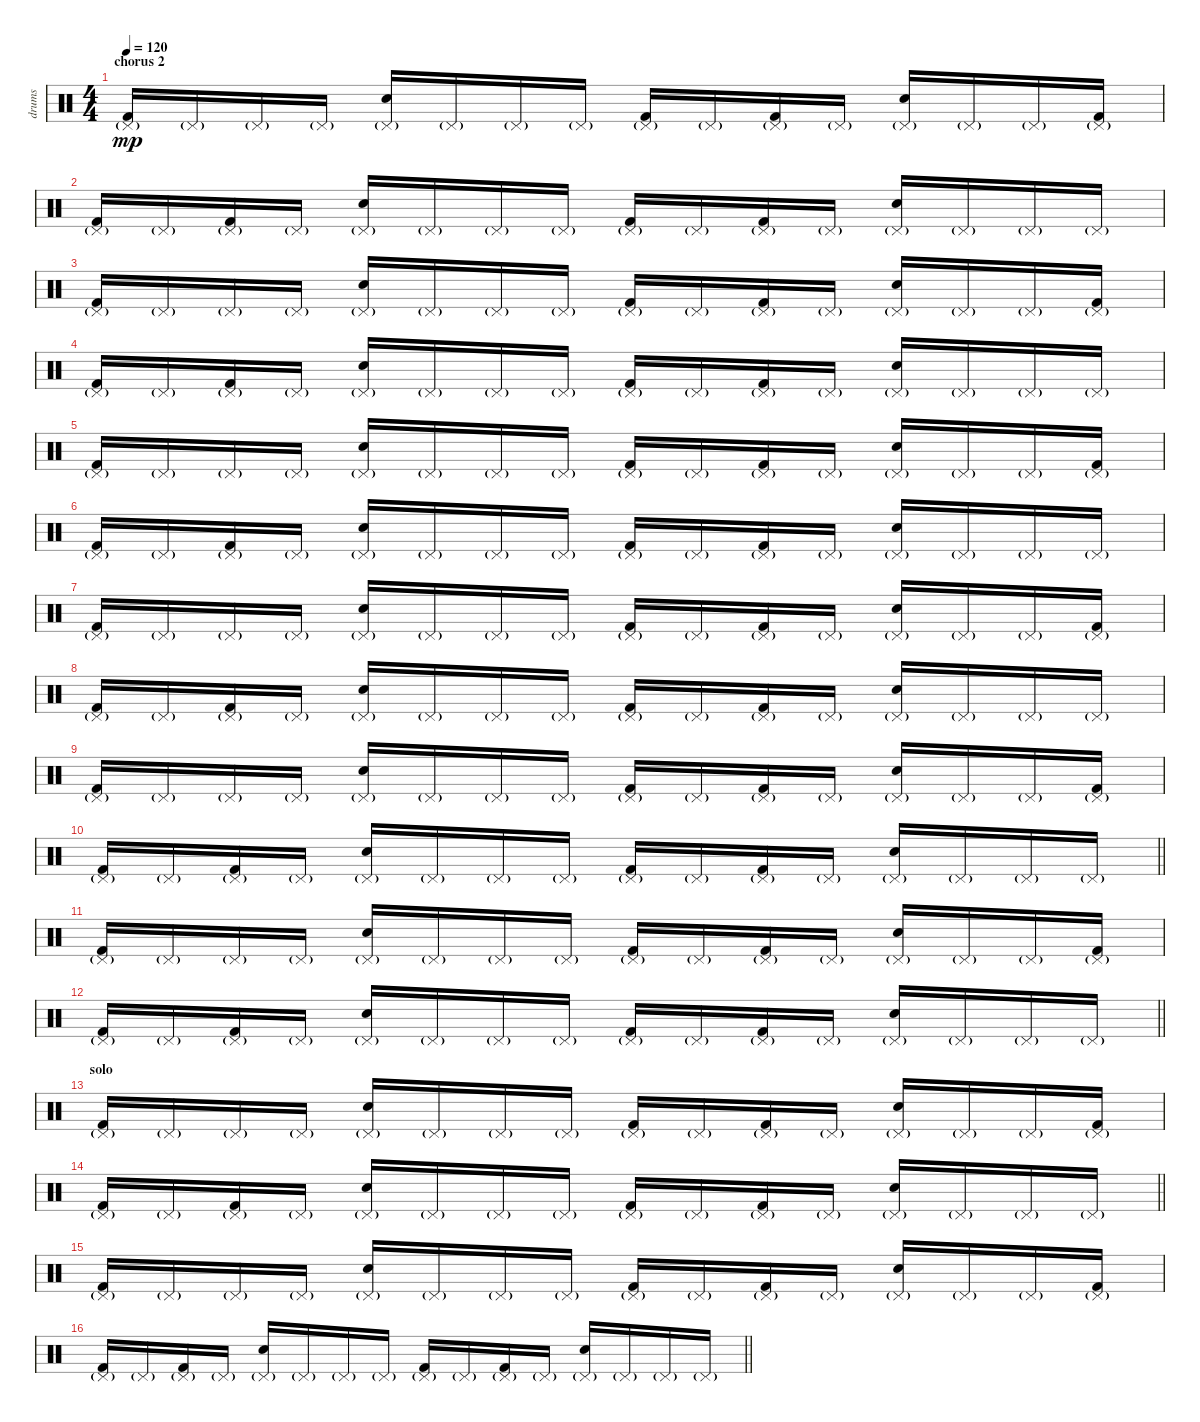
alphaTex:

\track ("drums" "drums") {instrument percussion}
\staff {score}
\articulation defaults
\ts (4 4)
\section ("" "chorus 2")
\tempo 120
\clef neutral
\ks c
("Kick (hit) 2" "Pedal Hi-Hat (hit)"{g}).16{dy mp} "Pedal Hi-Hat (hit)"{g}.16 "Pedal Hi-Hat (hit)"{g}.16 "Pedal Hi-Hat (hit)"{g}.16 ("Electric Snare (hit)" "Pedal Hi-Hat (hit)"{g}).16 "Pedal Hi-Hat (hit)"{g}.16 "Pedal Hi-Hat (hit)"{g}.16 "Pedal Hi-Hat (hit)"{g}.16 ("Kick (hit) 2" "Pedal Hi-Hat (hit)"{g}).16 "Pedal Hi-Hat (hit)"{g}.16 ("Kick (hit) 2" "Pedal Hi-Hat (hit)"{g}).16 "Pedal Hi-Hat (hit)"{g}.16 ("Electric Snare (hit)" "Pedal Hi-Hat (hit)"{g}).16 "Pedal Hi-Hat (hit)"{g}.16 "Pedal Hi-Hat (hit)"{g}.16 ("Kick (hit) 2" "Pedal Hi-Hat (hit)"{g}).16 |
("Kick (hit) 2" "Pedal Hi-Hat (hit)"{g}).16 "Pedal Hi-Hat (hit)"{g}.16 ("Kick (hit) 2" "Pedal Hi-Hat (hit)"{g}).16 "Pedal Hi-Hat (hit)"{g}.16 ("Electric Snare (hit)" "Pedal Hi-Hat (hit)"{g}).16 "Pedal Hi-Hat (hit)"{g}.16 "Pedal Hi-Hat (hit)"{g}.16 "Pedal Hi-Hat (hit)"{g}.16 ("Kick (hit) 2" "Pedal Hi-Hat (hit)"{g}).16 "Pedal Hi-Hat (hit)"{g}.16 ("Kick (hit) 2" "Pedal Hi-Hat (hit)"{g}).16 "Pedal Hi-Hat (hit)"{g}.16 ("Electric Snare (hit)" "Pedal Hi-Hat (hit)"{g}).16 "Pedal Hi-Hat (hit)"{g}.16 "Pedal Hi-Hat (hit)"{g}.16 "Pedal Hi-Hat (hit)"{g}.16 |
("Kick (hit) 2" "Pedal Hi-Hat (hit)"{g}).16 "Pedal Hi-Hat (hit)"{g}.16 "Pedal Hi-Hat (hit)"{g}.16 "Pedal Hi-Hat (hit)"{g}.16 ("Electric Snare (hit)" "Pedal Hi-Hat (hit)"{g}).16 "Pedal Hi-Hat (hit)"{g}.16 "Pedal Hi-Hat (hit)"{g}.16 "Pedal Hi-Hat (hit)"{g}.16 ("Kick (hit) 2" "Pedal Hi-Hat (hit)"{g}).16 "Pedal Hi-Hat (hit)"{g}.16 ("Kick (hit) 2" "Pedal Hi-Hat (hit)"{g}).16 "Pedal Hi-Hat (hit)"{g}.16 ("Electric Snare (hit)" "Pedal Hi-Hat (hit)"{g}).16 "Pedal Hi-Hat (hit)"{g}.16 "Pedal Hi-Hat (hit)"{g}.16 ("Kick (hit) 2" "Pedal Hi-Hat (hit)"{g}).16 |
("Kick (hit) 2" "Pedal Hi-Hat (hit)"{g}).16 "Pedal Hi-Hat (hit)"{g}.16 ("Kick (hit) 2" "Pedal Hi-Hat (hit)"{g}).16 "Pedal Hi-Hat (hit)"{g}.16 ("Electric Snare (hit)" "Pedal Hi-Hat (hit)"{g}).16 "Pedal Hi-Hat (hit)"{g}.16 "Pedal Hi-Hat (hit)"{g}.16 "Pedal Hi-Hat (hit)"{g}.16 ("Kick (hit) 2" "Pedal Hi-Hat (hit)"{g}).16 "Pedal Hi-Hat (hit)"{g}.16 ("Kick (hit) 2" "Pedal Hi-Hat (hit)"{g}).16 "Pedal Hi-Hat (hit)"{g}.16 ("Electric Snare (hit)" "Pedal Hi-Hat (hit)"{g}).16 "Pedal Hi-Hat (hit)"{g}.16 "Pedal Hi-Hat (hit)"{g}.16 "Pedal Hi-Hat (hit)"{g}.16 |
("Kick (hit) 2" "Pedal Hi-Hat (hit)"{g}).16 "Pedal Hi-Hat (hit)"{g}.16 "Pedal Hi-Hat (hit)"{g}.16 "Pedal Hi-Hat (hit)"{g}.16 ("Electric Snare (hit)" "Pedal Hi-Hat (hit)"{g}).16 "Pedal Hi-Hat (hit)"{g}.16 "Pedal Hi-Hat (hit)"{g}.16 "Pedal Hi-Hat (hit)"{g}.16 ("Kick (hit) 2" "Pedal Hi-Hat (hit)"{g}).16 "Pedal Hi-Hat (hit)"{g}.16 ("Kick (hit) 2" "Pedal Hi-Hat (hit)"{g}).16 "Pedal Hi-Hat (hit)"{g}.16 ("Electric Snare (hit)" "Pedal Hi-Hat (hit)"{g}).16 "Pedal Hi-Hat (hit)"{g}.16 "Pedal Hi-Hat (hit)"{g}.16 ("Kick (hit) 2" "Pedal Hi-Hat (hit)"{g}).16 |
("Kick (hit) 2" "Pedal Hi-Hat (hit)"{g}).16 "Pedal Hi-Hat (hit)"{g}.16 ("Kick (hit) 2" "Pedal Hi-Hat (hit)"{g}).16 "Pedal Hi-Hat (hit)"{g}.16 ("Electric Snare (hit)" "Pedal Hi-Hat (hit)"{g}).16 "Pedal Hi-Hat (hit)"{g}.16 "Pedal Hi-Hat (hit)"{g}.16 "Pedal Hi-Hat (hit)"{g}.16 ("Kick (hit) 2" "Pedal Hi-Hat (hit)"{g}).16 "Pedal Hi-Hat (hit)"{g}.16 ("Kick (hit) 2" "Pedal Hi-Hat (hit)"{g}).16 "Pedal Hi-Hat (hit)"{g}.16 ("Electric Snare (hit)" "Pedal Hi-Hat (hit)"{g}).16 "Pedal Hi-Hat (hit)"{g}.16 "Pedal Hi-Hat (hit)"{g}.16 "Pedal Hi-Hat (hit)"{g}.16 |
("Kick (hit) 2" "Pedal Hi-Hat (hit)"{g}).16 "Pedal Hi-Hat (hit)"{g}.16 "Pedal Hi-Hat (hit)"{g}.16 "Pedal Hi-Hat (hit)"{g}.16 ("Electric Snare (hit)" "Pedal Hi-Hat (hit)"{g}).16 "Pedal Hi-Hat (hit)"{g}.16 "Pedal Hi-Hat (hit)"{g}.16 "Pedal Hi-Hat (hit)"{g}.16 ("Kick (hit) 2" "Pedal Hi-Hat (hit)"{g}).16 "Pedal Hi-Hat (hit)"{g}.16 ("Kick (hit) 2" "Pedal Hi-Hat (hit)"{g}).16 "Pedal Hi-Hat (hit)"{g}.16 ("Electric Snare (hit)" "Pedal Hi-Hat (hit)"{g}).16 "Pedal Hi-Hat (hit)"{g}.16 "Pedal Hi-Hat (hit)"{g}.16 ("Kick (hit) 2" "Pedal Hi-Hat (hit)"{g}).16 |
("Kick (hit) 2" "Pedal Hi-Hat (hit)"{g}).16 "Pedal Hi-Hat (hit)"{g}.16 ("Kick (hit) 2" "Pedal Hi-Hat (hit)"{g}).16 "Pedal Hi-Hat (hit)"{g}.16 ("Electric Snare (hit)" "Pedal Hi-Hat (hit)"{g}).16 "Pedal Hi-Hat (hit)"{g}.16 "Pedal Hi-Hat (hit)"{g}.16 "Pedal Hi-Hat (hit)"{g}.16 ("Kick (hit) 2" "Pedal Hi-Hat (hit)"{g}).16 "Pedal Hi-Hat (hit)"{g}.16 ("Kick (hit) 2" "Pedal Hi-Hat (hit)"{g}).16 "Pedal Hi-Hat (hit)"{g}.16 ("Electric Snare (hit)" "Pedal Hi-Hat (hit)"{g}).16 "Pedal Hi-Hat (hit)"{g}.16 "Pedal Hi-Hat (hit)"{g}.16 "Pedal Hi-Hat (hit)"{g}.16 |
("Kick (hit) 2" "Pedal Hi-Hat (hit)"{g}).16 "Pedal Hi-Hat (hit)"{g}.16 "Pedal Hi-Hat (hit)"{g}.16 "Pedal Hi-Hat (hit)"{g}.16 ("Hand Clap (hit)" "Pedal Hi-Hat (hit)"{g}).16 "Pedal Hi-Hat (hit)"{g}.16 "Pedal Hi-Hat (hit)"{g}.16 "Pedal Hi-Hat (hit)"{g}.16 ("Kick (hit) 2" "Pedal Hi-Hat (hit)"{g}).16 "Pedal Hi-Hat (hit)"{g}.16 ("Kick (hit) 2" "Pedal Hi-Hat (hit)"{g}).16 "Pedal Hi-Hat (hit)"{g}.16 ("Hand Clap (hit)" "Pedal Hi-Hat (hit)"{g}).16 "Pedal Hi-Hat (hit)"{g}.16 "Pedal Hi-Hat (hit)"{g}.16 ("Kick (hit) 2" "Pedal Hi-Hat (hit)"{g}).16 |
\barLineRight lightlight
("Kick (hit) 2" "Pedal Hi-Hat (hit)"{g}).16 "Pedal Hi-Hat (hit)"{g}.16 ("Kick (hit) 2" "Pedal Hi-Hat (hit)"{g}).16 "Pedal Hi-Hat (hit)"{g}.16 ("Hand Clap (hit)" "Pedal Hi-Hat (hit)"{g}).16 "Pedal Hi-Hat (hit)"{g}.16 "Pedal Hi-Hat (hit)"{g}.16 "Pedal Hi-Hat (hit)"{g}.16 ("Kick (hit) 2" "Pedal Hi-Hat (hit)"{g}).16 "Pedal Hi-Hat (hit)"{g}.16 ("Kick (hit) 2" "Pedal Hi-Hat (hit)"{g}).16 "Pedal Hi-Hat (hit)"{g}.16 ("Hand Clap (hit)" "Pedal Hi-Hat (hit)"{g}).16 "Pedal Hi-Hat (hit)"{g}.16 "Pedal Hi-Hat (hit)"{g}.16 "Pedal Hi-Hat (hit)"{g}.16 |
("Kick (hit) 2" "Pedal Hi-Hat (hit)"{g}).16 "Pedal Hi-Hat (hit)"{g}.16 "Pedal Hi-Hat (hit)"{g}.16 "Pedal Hi-Hat (hit)"{g}.16 ("Hand Clap (hit)" "Pedal Hi-Hat (hit)"{g}).16 "Pedal Hi-Hat (hit)"{g}.16 "Pedal Hi-Hat (hit)"{g}.16 "Pedal Hi-Hat (hit)"{g}.16 ("Kick (hit) 2" "Pedal Hi-Hat (hit)"{g}).16 "Pedal Hi-Hat (hit)"{g}.16 ("Kick (hit) 2" "Pedal Hi-Hat (hit)"{g}).16 "Pedal Hi-Hat (hit)"{g}.16 ("Hand Clap (hit)" "Pedal Hi-Hat (hit)"{g}).16 "Pedal Hi-Hat (hit)"{g}.16 "Pedal Hi-Hat (hit)"{g}.16 ("Kick (hit) 2" "Pedal Hi-Hat (hit)"{g}).16 |
\barLineRight lightlight
("Kick (hit) 2" "Pedal Hi-Hat (hit)"{g}).16 "Pedal Hi-Hat (hit)"{g}.16 ("Kick (hit) 2" "Pedal Hi-Hat (hit)"{g}).16 "Pedal Hi-Hat (hit)"{g}.16 ("Hand Clap (hit)" "Pedal Hi-Hat (hit)"{g}).16 "Pedal Hi-Hat (hit)"{g}.16 "Pedal Hi-Hat (hit)"{g}.16 "Pedal Hi-Hat (hit)"{g}.16 ("Kick (hit) 2" "Pedal Hi-Hat (hit)"{g}).16 "Pedal Hi-Hat (hit)"{g}.16 ("Kick (hit) 2" "Pedal Hi-Hat (hit)"{g}).16 "Pedal Hi-Hat (hit)"{g}.16 ("Hand Clap (hit)" "Pedal Hi-Hat (hit)"{g}).16 "Pedal Hi-Hat (hit)"{g}.16 "Pedal Hi-Hat (hit)"{g}.16 "Pedal Hi-Hat (hit)"{g}.16 |
\section ("" "solo")
("Kick (hit) 2" "Pedal Hi-Hat (hit)"{g}).16 "Pedal Hi-Hat (hit)"{g}.16 "Pedal Hi-Hat (hit)"{g}.16 "Pedal Hi-Hat (hit)"{g}.16 ("Hand Clap (hit)" "Pedal Hi-Hat (hit)"{g}).16 "Pedal Hi-Hat (hit)"{g}.16 "Pedal Hi-Hat (hit)"{g}.16 "Pedal Hi-Hat (hit)"{g}.16 ("Kick (hit) 2" "Pedal Hi-Hat (hit)"{g}).16 "Pedal Hi-Hat (hit)"{g}.16 ("Kick (hit) 2" "Pedal Hi-Hat (hit)"{g}).16 "Pedal Hi-Hat (hit)"{g}.16 ("Hand Clap (hit)" "Pedal Hi-Hat (hit)"{g}).16 "Pedal Hi-Hat (hit)"{g}.16 "Pedal Hi-Hat (hit)"{g}.16 ("Kick (hit) 2" "Pedal Hi-Hat (hit)"{g}).16 |
\barLineRight lightlight
("Kick (hit) 2" "Pedal Hi-Hat (hit)"{g}).16 "Pedal Hi-Hat (hit)"{g}.16 ("Kick (hit) 2" "Pedal Hi-Hat (hit)"{g}).16 "Pedal Hi-Hat (hit)"{g}.16 ("Hand Clap (hit)" "Pedal Hi-Hat (hit)"{g}).16 "Pedal Hi-Hat (hit)"{g}.16 "Pedal Hi-Hat (hit)"{g}.16 "Pedal Hi-Hat (hit)"{g}.16 ("Kick (hit) 2" "Pedal Hi-Hat (hit)"{g}).16 "Pedal Hi-Hat (hit)"{g}.16 ("Kick (hit) 2" "Pedal Hi-Hat (hit)"{g}).16 "Pedal Hi-Hat (hit)"{g}.16 ("Hand Clap (hit)" "Pedal Hi-Hat (hit)"{g}).16 "Pedal Hi-Hat (hit)"{g}.16 "Pedal Hi-Hat (hit)"{g}.16 "Pedal Hi-Hat (hit)"{g}.16 |
("Kick (hit) 2" "Pedal Hi-Hat (hit)"{g}).16 "Pedal Hi-Hat (hit)"{g}.16 "Pedal Hi-Hat (hit)"{g}.16 "Pedal Hi-Hat (hit)"{g}.16 ("Hand Clap (hit)" "Pedal Hi-Hat (hit)"{g}).16 "Pedal Hi-Hat (hit)"{g}.16 "Pedal Hi-Hat (hit)"{g}.16 "Pedal Hi-Hat (hit)"{g}.16 ("Kick (hit) 2" "Pedal Hi-Hat (hit)"{g}).16 "Pedal Hi-Hat (hit)"{g}.16 ("Kick (hit) 2" "Pedal Hi-Hat (hit)"{g}).16 "Pedal Hi-Hat (hit)"{g}.16 ("Hand Clap (hit)" "Pedal Hi-Hat (hit)"{g}).16 "Pedal Hi-Hat (hit)"{g}.16 "Pedal Hi-Hat (hit)"{g}.16 ("Kick (hit) 2" "Pedal Hi-Hat (hit)"{g}).16 |
\barLineRight lightlight
("Kick (hit) 2" "Pedal Hi-Hat (hit)"{g}).16 "Pedal Hi-Hat (hit)"{g}.16 ("Kick (hit) 2" "Pedal Hi-Hat (hit)"{g}).16 "Pedal Hi-Hat (hit)"{g}.16 ("Hand Clap (hit)" "Pedal Hi-Hat (hit)"{g}).16 "Pedal Hi-Hat (hit)"{g}.16 "Pedal Hi-Hat (hit)"{g}.16 "Pedal Hi-Hat (hit)"{g}.16 ("Kick (hit) 2" "Pedal Hi-Hat (hit)"{g}).16 "Pedal Hi-Hat (hit)"{g}.16 ("Kick (hit) 2" "Pedal Hi-Hat (hit)"{g}).16 "Pedal Hi-Hat (hit)"{g}.16 ("Hand Clap (hit)" "Pedal Hi-Hat (hit)"{g}).16 "Pedal Hi-Hat (hit)"{g}.16 "Pedal Hi-Hat (hit)"{g}.16 "Pedal Hi-Hat (hit)"{g}.16
